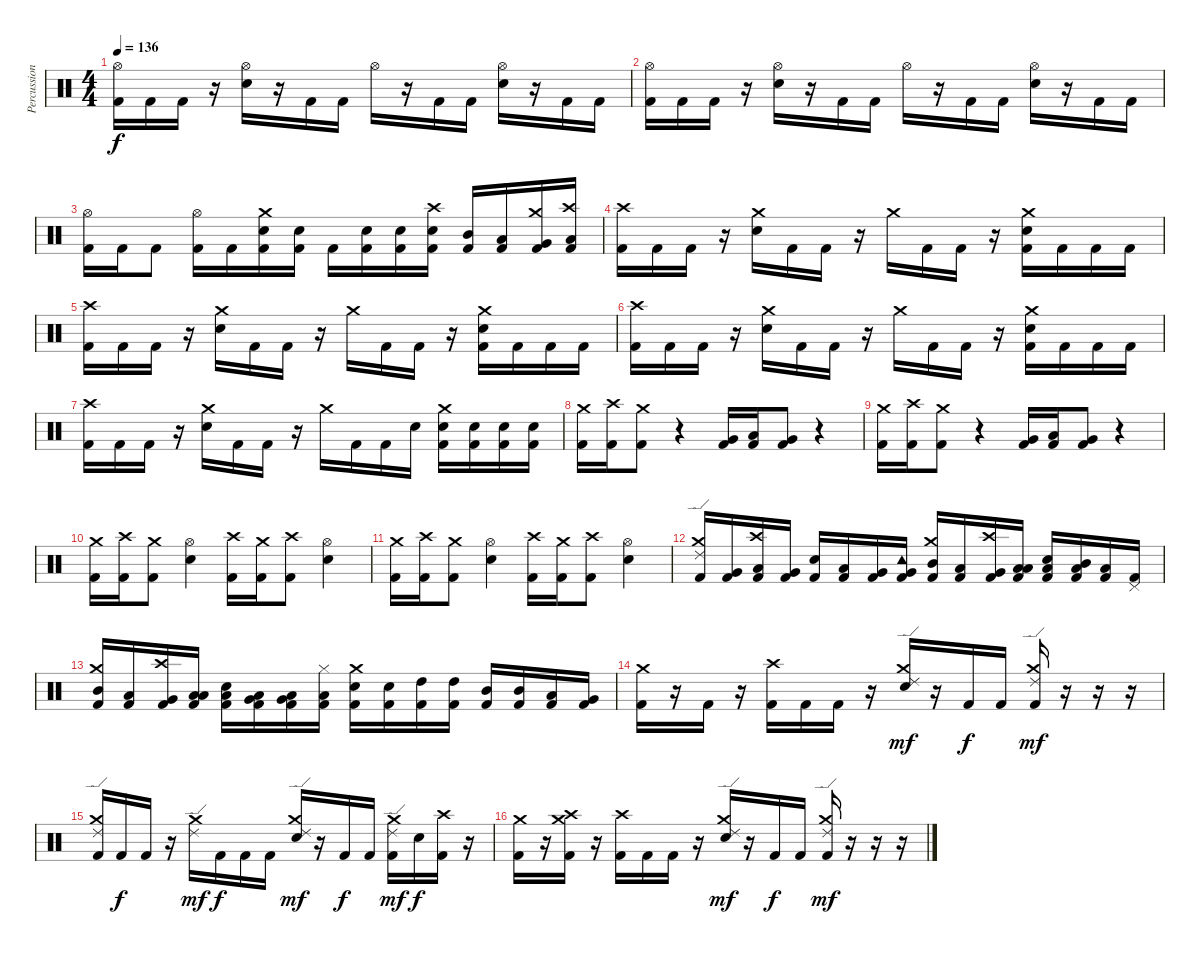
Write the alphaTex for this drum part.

\track ("Percussion" "Percussion") {instrument percussion}
\staff {score}
\articulation defaults
\ts (4 4)
\tempo 136
\clef neutral
\ks c
("Hi-Hat (open)" "Kick (hit) 2").16{dy f} "Kick (hit) 2".16 "Kick (hit) 2".16 r.16 ("Hi-Hat (open)" "Electric Snare (hit)").16 r.16 "Kick (hit) 2".16 "Kick (hit) 2".16 "Hi-Hat (open)".16 r.16 "Kick (hit) 2".16 "Kick (hit) 2".16 ("Hi-Hat (open)" "Electric Snare (hit)").16 r.16 "Kick (hit) 2".16 "Kick (hit) 2".16 |
("Hi-Hat (open)" "Kick (hit) 2").16 "Kick (hit) 2".16 "Kick (hit) 2".16 r.16 ("Hi-Hat (open)" "Electric Snare (hit)").16 r.16 "Kick (hit) 2".16 "Kick (hit) 2".16 "Hi-Hat (open)".16 r.16 "Kick (hit) 2".16 "Kick (hit) 2".16 ("Hi-Hat (open)" "Electric Snare (hit)").16 r.16 "Kick (hit) 2".16 "Kick (hit) 2".16 |
("Hi-Hat (open)" "Kick (hit) 2").16 "Kick (hit) 2".16 "Kick (hit) 2".8 ("Hi-Hat (open)" "Kick (hit) 2").16 "Kick (hit) 2".16 ("Crash medium (hit)" "Electric Snare (hit)" "Kick (hit) 2").16 ("Electric Snare (hit)" "Kick (hit) 2").16 "Kick (hit) 2".16 ("Snare (hit) 2" "Kick (hit) 2").16 ("Electric Snare (hit)" "Kick (hit) 2").16 ("Crash high (hit)" "Electric Snare (hit)" "Kick (hit) 2").16 ("Mid Tom (hit)" "Kick (hit) 2").16 ("Low Tom (hit)" "Kick (hit) 2").16 ("Crash medium (hit)" "Very Low Tom (hit)" "Kick (hit) 2").16 ("Crash high (hit)" "Low Floor Tom (hit)" "Kick (hit) 2").16 |
("Crash high (hit)" "Kick (hit) 2").16 "Kick (hit) 2".16 "Kick (hit) 2".16 r.16 ("Crash medium (hit)" "Electric Snare (hit)").16 "Kick (hit) 2".16 "Kick (hit) 2".16 r.16 "Crash medium (hit)".16 "Kick (hit) 2".16 "Kick (hit) 2".16 r.16 ("Crash medium (hit)" "Electric Snare (hit)" "Kick (hit) 2").16 "Kick (hit) 2".16 "Kick (hit) 2".16 "Kick (hit) 2".16 |
("Crash high (hit)" "Kick (hit) 2").16 "Kick (hit) 2".16 "Kick (hit) 2".16 r.16 ("Crash medium (hit)" "Electric Snare (hit)").16 "Kick (hit) 2".16 "Kick (hit) 2".16 r.16 "Crash medium (hit)".16 "Kick (hit) 2".16 "Kick (hit) 2".16 r.16 ("Crash medium (hit)" "Electric Snare (hit)" "Kick (hit) 2").16 "Kick (hit) 2".16 "Kick (hit) 2".16 "Kick (hit) 2".16 |
("Crash high (hit)" "Kick (hit) 2").16 "Kick (hit) 2".16 "Kick (hit) 2".16 r.16 ("Crash medium (hit)" "Electric Snare (hit)").16 "Kick (hit) 2".16 "Kick (hit) 2".16 r.16 "Crash medium (hit)".16 "Kick (hit) 2".16 "Kick (hit) 2".16 r.16 ("Crash medium (hit)" "Electric Snare (hit)" "Kick (hit) 2").16 "Kick (hit) 2".16 "Kick (hit) 2".16 "Kick (hit) 2".16 |
("Crash high (hit)" "Kick (hit) 2").16 "Kick (hit) 2".16 "Kick (hit) 2".16 r.16 ("Crash medium (hit)" "Electric Snare (hit)").16 "Kick (hit) 2".16 "Kick (hit) 2".16 r.16 "Crash medium (hit)".16 "Kick (hit) 2".16 "Kick (hit) 2".16 "Electric Snare (hit)".16 ("Crash medium (hit)" "Electric Snare (hit)" "Kick (hit) 2").16 ("Electric Snare (hit)" "Kick (hit) 2").16 ("Electric Snare (hit)" "Kick (hit) 2").16 ("Electric Snare (hit)" "Kick (hit) 2").16 |
("Crash medium (hit)" "Kick (hit) 2").16 ("Crash high (hit)" "Kick (hit) 2").16 ("Crash medium (hit)" "Kick (hit) 2").8 r.4 ("Very Low Tom (hit)" "Kick (hit) 2").16 ("Low Tom (hit)" "Kick (hit) 2").16 ("Very Low Tom (hit)" "Kick (hit) 2").8 r.4 |
("Crash medium (hit)" "Kick (hit) 2").16 ("Crash high (hit)" "Kick (hit) 2").16 ("Crash medium (hit)" "Kick (hit) 2").8 r.4 ("Very Low Tom (hit)" "Kick (hit) 2").16 ("Low Tom (hit)" "Kick (hit) 2").16 ("Very Low Tom (hit)" "Kick (hit) 2").8 r.4 |
("Crash medium (hit)" "Kick (hit) 2").16 ("Crash high (hit)" "Kick (hit) 2").16 ("Crash medium (hit)" "Kick (hit) 2").8 ("Hi-Hat (open)" "Electric Snare (hit)").4 ("Crash high (hit)" "Kick (hit) 2").16 ("Crash medium (hit)" "Kick (hit) 2").16 ("Crash high (hit)" "Kick (hit) 2").8 ("Hi-Hat (open)" "Electric Snare (hit)").4 |
("Crash medium (hit)" "Kick (hit) 2").16 ("Crash high (hit)" "Kick (hit) 2").16 ("Crash medium (hit)" "Kick (hit) 2").8 ("Hi-Hat (open)" "Electric Snare (hit)").4 ("Crash high (hit)" "Kick (hit) 2").16 ("Crash medium (hit)" "Kick (hit) 2").16 ("Crash high (hit)" "Kick (hit) 2").8 ("Hi-Hat (open)" "Electric Snare (hit)").4 |
("Crash medium (hit)" "Ride (edge) 2" "Kick (hit) 2").16 ("Very Low Tom (hit)" "Kick (hit) 2").16 ("Crash high (hit)" "Low Tom (hit)" "Kick (hit) 2").16 ("Very Low Tom (hit)" "Kick (hit) 2").16 ("Electric Snare (hit)" "Kick (hit) 2").16 ("Low Tom (hit)" "Kick (hit) 2").16 ("Very Low Tom (hit)" "Kick (hit) 2").16 ("Tambourine (hit)" "Very Low Tom (hit)" "Kick (hit) 2").16 ("Crash medium (hit)" "Mid Tom (hit)" "Kick (hit) 2").16 ("Low Tom (hit)" "Kick (hit) 2").16 ("Crash high (hit)" "Very Low Tom (hit)" "Kick (hit) 2").16 ("Low Floor Tom (hit)" "Low Tom (hit)" "Kick (hit) 2").16 ("Low Floor Tom (hit)" "Electric Snare (hit)" "Kick (hit) 2").16 ("Low Floor Tom (hit)" "Mid Tom (hit)" "Kick (hit) 2").16 ("Low Floor Tom (hit)" "Kick (hit) 2").16 ("Pedal Hi-Hat (hit)" "Kick (hit) 2").16 |
("Crash medium (hit)" "Mid Tom (hit)" "Kick (hit) 2").16 ("Low Tom (hit)" "Kick (hit) 2").16 ("Crash high (hit)" "Very Low Tom (hit)" "Kick (hit) 2").16 ("Low Floor Tom (hit)" "Low Tom (hit)" "Kick (hit) 2").16 ("Low Floor Tom (hit)" "Electric Snare (hit)" "Kick (hit) 2").16 ("Low Floor Tom (hit)" "Very Low Tom (hit)" "Kick (hit) 2").16 ("Low Floor Tom (hit)" "Very Low Tom (hit)" "Kick (hit) 2").16 ("Hi-Hat (closed)" "Low Floor Tom (hit)" "Kick (hit) 2").16 ("Crash medium (hit)" "Electric Snare (hit)" "Kick (hit) 2").16 ("Electric Snare (hit)" "Kick (hit) 2").16 ("High Tom (hit)" "Kick (hit) 2").16 ("High Tom (hit)" "Kick (hit) 2").16 ("Mid Tom (hit)" "Kick (hit) 2").16 ("Mid Tom (hit)" "Kick (hit) 2").16 ("Low Tom (hit)" "Kick (hit) 2").16 ("Very Low Tom (hit)" "Kick (hit) 2").16 |
("Crash medium (hit)" "Kick (hit) 2").16 r.16 "Kick (hit) 2".16 r.16 ("Crash high (hit)" "Kick (hit) 2").16 "Kick (hit) 2".16 "Kick (hit) 2".16 r.16 ("Crash medium (hit)" "Ride (edge) 2" "Electric Snare (hit)").16{dy mf} r.16 "Kick (hit) 2".16{dy f} "Kick (hit) 2".16 ("Crash medium (hit)" "Ride (edge) 2" "Kick (hit) 2").16{dy mf} r.16 r.16 r.16 |
("Crash medium (hit)" "Ride (edge) 2" "Kick (hit) 2").16 "Kick (hit) 2".16{dy f} "Kick (hit) 2".16 r.16 ("Crash medium (hit)" "Ride (edge) 2").16{dy mf} "Kick (hit) 2".16{dy f} "Kick (hit) 2".16 "Kick (hit) 2".16 ("Crash medium (hit)" "Ride (edge) 2" "Electric Snare (hit)").16{dy mf} r.16 "Kick (hit) 2".16{dy f} "Kick (hit) 2".16 ("Crash medium (hit)" "Ride (edge) 2" "Kick (hit) 2").16{dy mf} "Electric Snare (hit)".16{dy f} ("Crash high (hit)" "Kick (hit) 2").16 r.16 |
("Crash medium (hit)" "Kick (hit) 2").16 r.16 ("Crash medium (hit)" "Crash high (hit)" "Kick (hit) 2").16 r.16 ("Crash high (hit)" "Kick (hit) 2").16 "Kick (hit) 2".16 "Kick (hit) 2".16 r.16 ("Crash medium (hit)" "Ride (edge) 2" "Electric Snare (hit)").16{dy mf} r.16 "Kick (hit) 2".16{dy f} "Kick (hit) 2".16 ("Crash medium (hit)" "Ride (edge) 2" "Kick (hit) 2").16{dy mf} r.16 r.16 r.16
